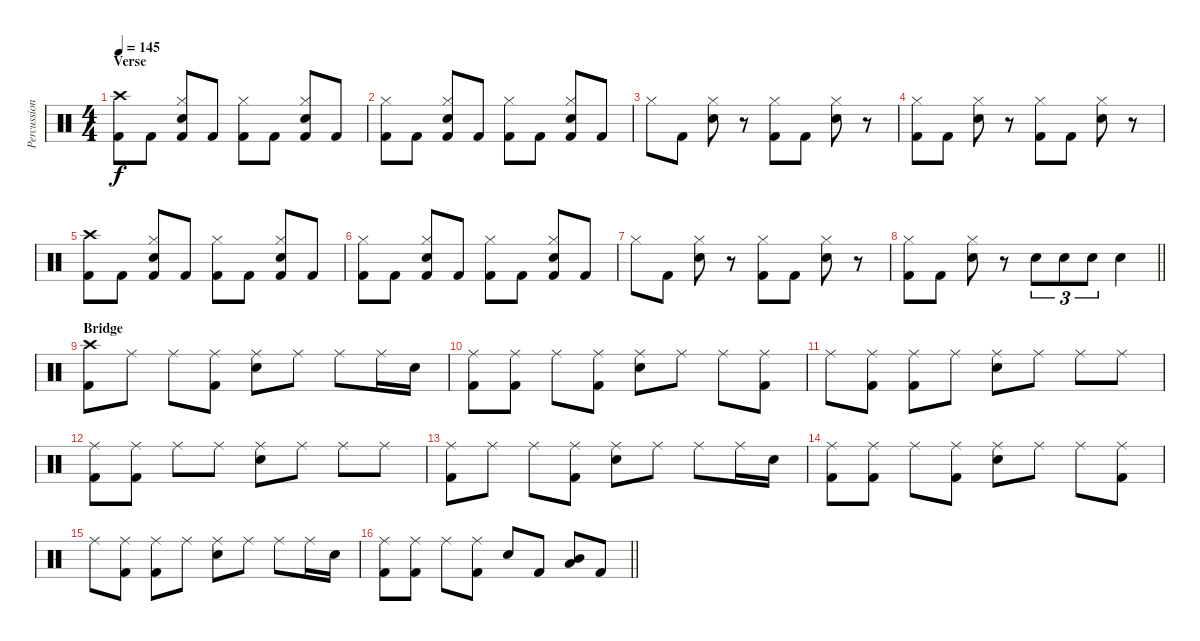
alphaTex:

\track ("Percussion" "Percussion") {instrument percussion}
\staff {score}
\articulation defaults
\ts (4 4)
\section ("" "Verse")
\tempo 145
\clef neutral
\ks c
("Crash high (hit)" "Kick (hit) 2").8{dy f} "Kick (hit) 2".8 ("Hi-Hat (closed)" "Snare (hit) 2" "Kick (hit) 2").8 "Kick (hit) 2".8 ("Hi-Hat (closed)" "Kick (hit) 2").8 "Kick (hit) 2".8 ("Hi-Hat (closed)" "Snare (hit) 2" "Kick (hit) 2").8 "Kick (hit) 2".8 |
("Hi-Hat (closed)" "Kick (hit) 2").8 "Kick (hit) 2".8 ("Hi-Hat (closed)" "Snare (hit) 2" "Kick (hit) 2").8 "Kick (hit) 2".8 ("Hi-Hat (closed)" "Kick (hit) 2").8 "Kick (hit) 2".8 ("Hi-Hat (closed)" "Snare (hit) 2" "Kick (hit) 2").8 "Kick (hit) 2".8 |
"Hi-Hat (closed)".8 "Kick (hit) 2".8 ("Hi-Hat (closed)" "Snare (hit) 2").8 r.8 ("Hi-Hat (closed)" "Kick (hit) 2").8 "Kick (hit) 2".8 ("Hi-Hat (closed)" "Snare (hit) 2").8 r.8 |
("Hi-Hat (closed)" "Kick (hit) 2").8 "Kick (hit) 2".8 ("Hi-Hat (closed)" "Snare (hit) 2").8 r.8 ("Hi-Hat (closed)" "Kick (hit) 2").8 "Kick (hit) 2".8 ("Hi-Hat (closed)" "Snare (hit) 2").8 r.8 |
("Crash high (hit)" "Kick (hit) 2").8 "Kick (hit) 2".8 ("Hi-Hat (closed)" "Snare (hit) 2" "Kick (hit) 2").8 "Kick (hit) 2".8 ("Hi-Hat (closed)" "Kick (hit) 2").8 "Kick (hit) 2".8 ("Hi-Hat (closed)" "Snare (hit) 2" "Kick (hit) 2").8 "Kick (hit) 2".8 |
("Hi-Hat (closed)" "Kick (hit) 2").8 "Kick (hit) 2".8 ("Hi-Hat (closed)" "Snare (hit) 2" "Kick (hit) 2").8 "Kick (hit) 2".8 ("Hi-Hat (closed)" "Kick (hit) 2").8 "Kick (hit) 2".8 ("Hi-Hat (closed)" "Snare (hit) 2" "Kick (hit) 2").8 "Kick (hit) 2".8 |
"Hi-Hat (closed)".8 "Kick (hit) 2".8 ("Hi-Hat (closed)" "Snare (hit) 2").8 r.8 ("Hi-Hat (closed)" "Kick (hit) 2").8 "Kick (hit) 2".8 ("Hi-Hat (closed)" "Snare (hit) 2").8 r.8 |
\barLineRight lightlight
("Hi-Hat (closed)" "Kick (hit) 2").8 "Kick (hit) 2".8 ("Hi-Hat (closed)" "Snare (hit) 2").8 r.8 "Snare (hit) 2".8{tu (3 2)} "Snare (hit) 2".8{tu (3 2)} "Snare (hit) 2".8{tu (3 2)} "Snare (hit) 2".4 |
\section ("" "Bridge")
("Crash high (hit)" "Kick (hit) 2").8 "Ride (middle)".8 "Ride (middle)".8 ("Ride (middle)" "Kick (hit) 2").8 ("Ride (middle)" "Snare (hit) 2").8 "Ride (middle)".8 "Ride (middle)".8 "Ride (middle)".16 "Snare (hit) 2".16 |
("Ride (middle)" "Kick (hit) 2").8 ("Ride (middle)" "Kick (hit) 2").8 "Ride (middle)".8 ("Ride (middle)" "Kick (hit) 2").8 ("Ride (middle)" "Snare (hit) 2").8 "Ride (middle)".8 "Ride (middle)".8 ("Ride (middle)" "Kick (hit) 2").8 |
"Ride (middle)".8 ("Ride (middle)" "Kick (hit) 2").8 ("Ride (middle)" "Kick (hit) 2").8 "Ride (middle)".8 ("Ride (middle)" "Snare (hit) 2").8 "Ride (middle)".8 "Ride (middle)".8 "Ride (middle)".8 |
("Ride (middle)" "Kick (hit) 2").8 ("Ride (middle)" "Kick (hit) 2").8 "Ride (middle)".8 "Ride (middle)".8 ("Ride (middle)" "Snare (hit) 2").8 "Ride (middle)".8 "Ride (middle)".8 "Ride (middle)".8 |
("Ride (middle)" "Kick (hit) 2").8 "Ride (middle)".8 "Ride (middle)".8 ("Ride (middle)" "Kick (hit) 2").8 ("Ride (middle)" "Snare (hit) 2").8 "Ride (middle)".8 "Ride (middle)".8 "Ride (middle)".16 "Snare (hit) 2".16 |
("Ride (middle)" "Kick (hit) 2").8 ("Ride (middle)" "Kick (hit) 2").8 "Ride (middle)".8 ("Ride (middle)" "Kick (hit) 2").8 ("Ride (middle)" "Snare (hit) 2").8 "Ride (middle)".8 "Ride (middle)".8 ("Ride (middle)" "Kick (hit) 2").8 |
"Ride (middle)".8 ("Ride (middle)" "Kick (hit) 2").8 ("Ride (middle)" "Kick (hit) 2").8 "Ride (middle)".8 ("Ride (middle)" "Snare (hit) 2").8 "Ride (middle)".8 "Ride (middle)".8 "Ride (middle)".16 "Snare (hit) 2".16 |
\barLineRight lightlight
("Ride (middle)" "Kick (hit) 2").8 ("Ride (middle)" "Kick (hit) 2").8 "Ride (middle)".8 ("Ride (middle)" "Kick (hit) 2").8 "Snare (hit) 2".8 "Kick (hit) 2".8 ("Mid Tom (hit)" "Low Tom (hit)").8 "Kick (hit) 2".8
